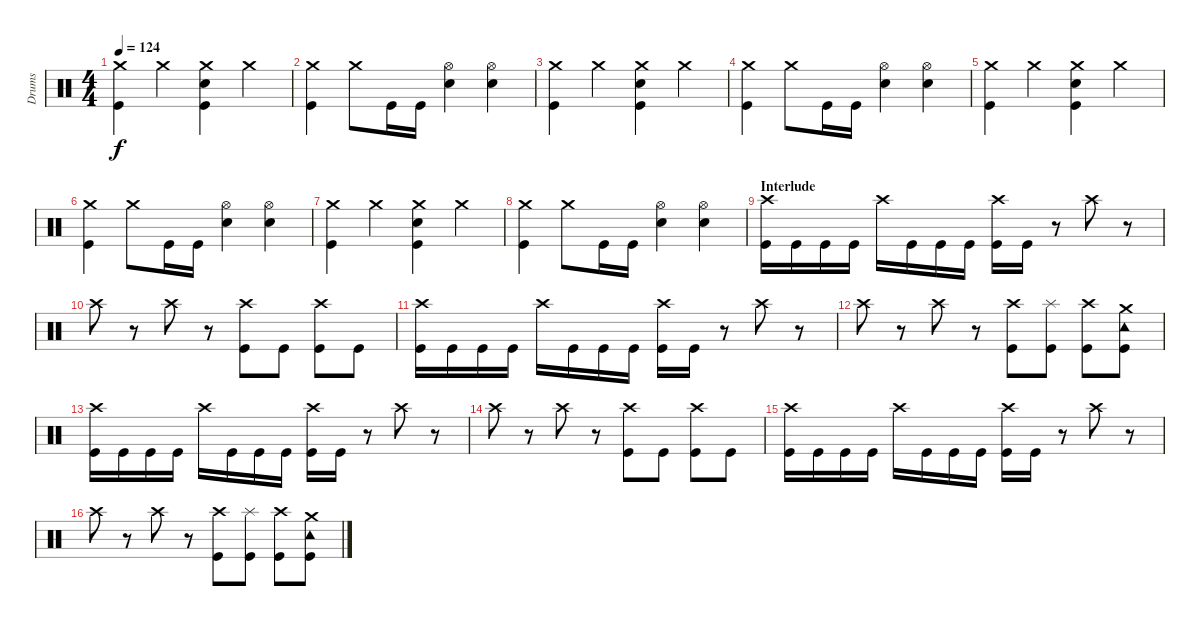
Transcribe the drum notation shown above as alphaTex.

\track ("Drums" "Drums") {instrument percussion}
\staff {score}
\articulation defaults
\ts (4 4)
\tempo 124
\clef neutral
\ks c
("Crash medium (hit)" "Kick (hit)").4{dy f} "Crash medium (hit)".4 ("Kick (hit)" "Crash medium (hit)" "Electric Snare (hit)").4 "Crash medium (hit)".4 |
("Crash medium (hit)" "Kick (hit)").4 "Crash medium (hit)".8 "Kick (hit)".16 "Kick (hit)".16 ("Hi-Hat (open)" "Electric Snare (hit)").4 ("Hi-Hat (open)" "Electric Snare (hit)").4 |
("Crash medium (hit)" "Kick (hit)").4 "Crash medium (hit)".4 ("Kick (hit)" "Crash medium (hit)" "Electric Snare (hit)").4 "Crash medium (hit)".4 |
("Crash medium (hit)" "Kick (hit)").4 "Crash medium (hit)".8 "Kick (hit)".16 "Kick (hit)".16 ("Hi-Hat (open)" "Electric Snare (hit)").4 ("Hi-Hat (open)" "Electric Snare (hit)").4 |
("Crash medium (hit)" "Kick (hit)").4 "Crash medium (hit)".4 ("Kick (hit)" "Crash medium (hit)" "Electric Snare (hit)").4 "Crash medium (hit)".4 |
("Crash medium (hit)" "Kick (hit)").4 "Crash medium (hit)".8 "Kick (hit)".16 "Kick (hit)".16 ("Hi-Hat (open)" "Electric Snare (hit)").4 ("Hi-Hat (open)" "Electric Snare (hit)").4 |
("Crash medium (hit)" "Kick (hit)").4 "Crash medium (hit)".4 ("Kick (hit)" "Crash medium (hit)" "Electric Snare (hit)").4 "Crash medium (hit)".4 |
("Crash medium (hit)" "Kick (hit)").4 "Crash medium (hit)".8 "Kick (hit)".16 "Kick (hit)".16 ("Hi-Hat (open)" "Electric Snare (hit)").4 ("Hi-Hat (open)" "Electric Snare (hit)").4 |
\section ("" "Interlude")
("Crash high (hit)" "Kick (hit)").16 "Kick (hit)".16 "Kick (hit)".16 "Kick (hit)".16 "Crash high (hit)".16 "Kick (hit)".16 "Kick (hit)".16 "Kick (hit)".16 ("Crash high (hit)" "Kick (hit)").16 "Kick (hit)".16 r.8 "Crash high (hit)".8 r.8 |
"Crash high (hit)".8 r.8 "Crash high (hit)".8 r.8 ("Crash high (hit)" "Kick (hit)").8 "Kick (hit)".8 ("Crash high (hit)" "Kick (hit)").8 "Kick (hit)".8 |
("Crash high (hit)" "Kick (hit)").16 "Kick (hit)".16 "Kick (hit)".16 "Kick (hit)".16 "Crash high (hit)".16 "Kick (hit)".16 "Kick (hit)".16 "Kick (hit)".16 ("Crash high (hit)" "Kick (hit)").16 "Kick (hit)".16 r.8 "Crash high (hit)".8 r.8 |
"Crash high (hit)".8 r.8 "Crash high (hit)".8 r.8 ("Crash high (hit)" "Kick (hit)").8 ("Splash (hit)" "Kick (hit)").8 ("Crash high (hit)" "Kick (hit)").8 ("Tambourine (hit)" "Crash medium (hit)" "Kick (hit)").8 |
("Crash high (hit)" "Kick (hit)").16 "Kick (hit)".16 "Kick (hit)".16 "Kick (hit)".16 "Crash high (hit)".16 "Kick (hit)".16 "Kick (hit)".16 "Kick (hit)".16 ("Crash high (hit)" "Kick (hit)").16 "Kick (hit)".16 r.8 "Crash high (hit)".8 r.8 |
"Crash high (hit)".8 r.8 "Crash high (hit)".8 r.8 ("Crash high (hit)" "Kick (hit)").8 "Kick (hit)".8 ("Crash high (hit)" "Kick (hit)").8 "Kick (hit)".8 |
("Crash high (hit)" "Kick (hit)").16 "Kick (hit)".16 "Kick (hit)".16 "Kick (hit)".16 "Crash high (hit)".16 "Kick (hit)".16 "Kick (hit)".16 "Kick (hit)".16 ("Crash high (hit)" "Kick (hit)").16 "Kick (hit)".16 r.8 "Crash high (hit)".8 r.8 |
"Crash high (hit)".8 r.8 "Crash high (hit)".8 r.8 ("Crash high (hit)" "Kick (hit)").8 ("Splash (hit)" "Kick (hit)").8 ("Crash high (hit)" "Kick (hit)").8 ("Tambourine (hit)" "Crash medium (hit)" "Kick (hit)").8
